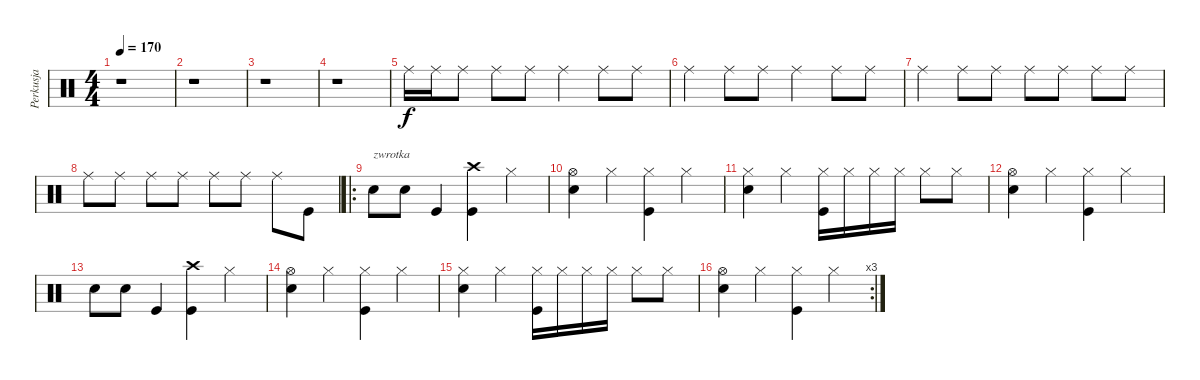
\track ("Perkusja" "Perkusja") {instrument percussion}
\staff {score}
\articulation defaults
\ts (4 4)
\tempo 170
\clef neutral
\ks c
r.1{dy f} |
r.1 |
r.1 |
r.1 |
"Ride (middle)".16 "Ride (middle)".16 "Ride (middle)".8 "Ride (middle)".8 "Ride (middle)".8 "Ride (middle)".4 "Ride (middle)".8 "Ride (middle)".8 |
"Ride (middle)".4 "Ride (middle)".8 "Ride (middle)".8 "Ride (middle)".4 "Ride (middle)".8 "Ride (middle)".8 |
"Ride (middle)".4 "Ride (middle)".8 "Ride (middle)".8 "Ride (middle)".8 "Ride (middle)".8 "Ride (middle)".8 "Ride (middle)".8 |
"Ride (middle)".8 "Ride (middle)".8 "Ride (middle)".8 "Ride (middle)".8 "Ride (middle)".8 "Ride (middle)".8 "Ride (middle)".8 "Kick (hit)".8 |
\ro "Electric Snare (hit)".8{txt "zwrotka"} "Electric Snare (hit)".8 "Kick (hit)".4
("Crash high (hit)" "Kick (hit)").4 "Hi-Hat (closed)".4 |
("Hi-Hat (open)" "Electric Snare (hit)").4 "Hi-Hat (closed)".4 ("Hi-Hat (closed)" "Kick (hit)").4 "Hi-Hat (closed)".4 |
("Hi-Hat (closed)" "Electric Snare (hit)").4 "Hi-Hat (closed)".4 ("Hi-Hat (closed)" "Kick (hit)").16 "Hi-Hat (closed)".16 "Hi-Hat (closed)".16 "Hi-Hat (closed)".16 "Hi-Hat (closed)".8 "Hi-Hat (closed)".8 |
("Hi-Hat (open)" "Electric Snare (hit)").4 "Hi-Hat (closed)".4 ("Hi-Hat (closed)" "Kick (hit)").4 "Hi-Hat (closed)".4 |
"Electric Snare (hit)".8 "Electric Snare (hit)".8 "Kick (hit)".4 ("Crash high (hit)" "Kick (hit)").4 "Hi-Hat (closed)".4 |
("Hi-Hat (open)" "Electric Snare (hit)").4 "Hi-Hat (closed)".4 ("Hi-Hat (closed)" "Kick (hit)").4 "Hi-Hat (closed)".4 |
("Hi-Hat (closed)" "Electric Snare (hit)").4 "Hi-Hat (closed)".4 ("Hi-Hat (closed)" "Kick (hit)").16 "Hi-Hat (closed)".16 "Hi-Hat (closed)".16 "Hi-Hat (closed)".16 "Hi-Hat (closed)".8 "Hi-Hat (closed)".8 |
\rc 3
("Hi-Hat (open)" "Electric Snare (hit)").4 "Hi-Hat (closed)".4 ("Hi-Hat (closed)" "Kick (hit)").4 "Hi-Hat (closed)".4
